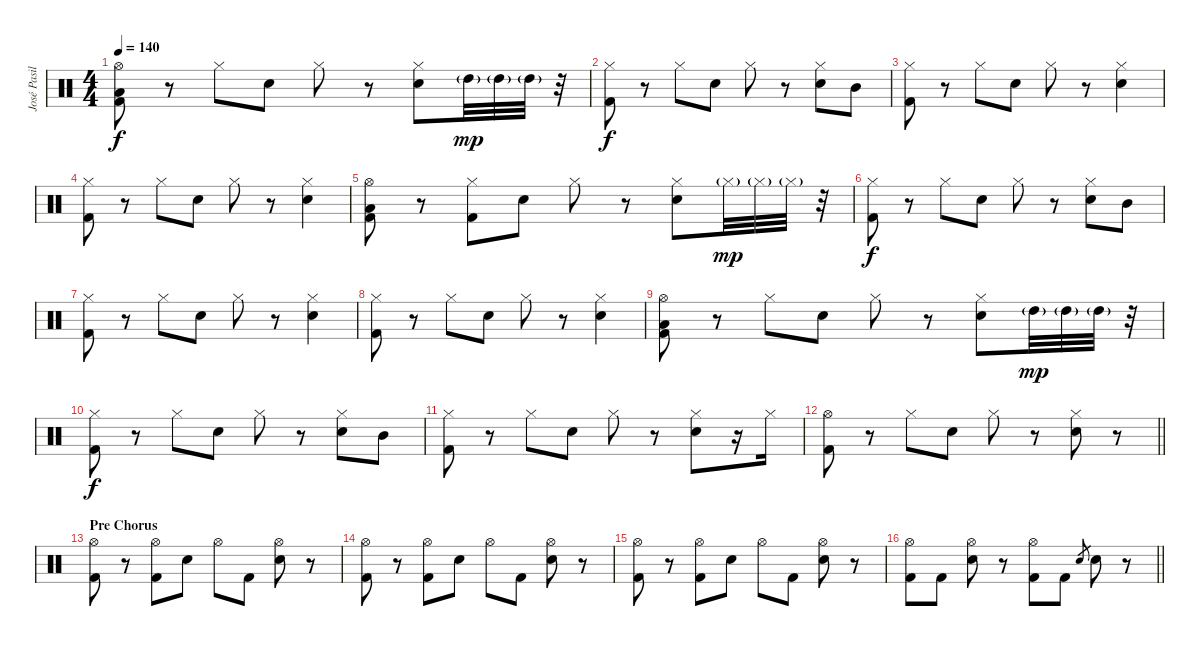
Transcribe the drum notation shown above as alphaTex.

\track ("José Pasillas [Drums]" "José Pasil") {instrument percussion}
\staff {score}
\articulation defaults
\ts (4 4)
\tempo 140
\clef neutral
\ks c
("Kick (hit) 2" "Low Tom (hit)" "Hi-Hat (open)").8{dy f} r.8 "Hi-Hat (closed)".8 "Electric Snare (hit)".8 "Hi-Hat (closed)".8 r.8 ("Electric Snare (hit)" "Hi-Hat (closed)").8 "High Tom (hit)"{g}.32{dy mp} "High Tom (hit)"{g}.32 "High Tom (hit)"{g}.32 r.32 |
("Kick (hit) 2" "Hi-Hat (closed)").8{dy f} r.8 "Hi-Hat (closed)".8 "Electric Snare (hit)".8 "Hi-Hat (closed)".8 r.8 ("Electric Snare (hit)" "Hi-Hat (closed)").8 "Mid Tom (hit)".8 |
("Kick (hit) 2" "Hi-Hat (closed)").8 r.8 "Hi-Hat (closed)".8 "Electric Snare (hit)".8 "Hi-Hat (closed)".8 r.8 ("Electric Snare (hit)" "Hi-Hat (closed)").4 |
("Kick (hit) 2" "Hi-Hat (closed)").8 r.8 "Hi-Hat (closed)".8 "Electric Snare (hit)".8 "Hi-Hat (closed)".8 r.8 ("Electric Snare (hit)" "Hi-Hat (closed)").4 |
("Kick (hit) 2" "Low Tom (hit)" "Hi-Hat (open)").8 r.8 ("Kick (hit) 2" "Hi-Hat (closed)").8 "Electric Snare (hit)".8 "Hi-Hat (closed)".8 r.8 ("Electric Snare (hit)" "Hi-Hat (closed)").8 "Hi-Hat (closed)"{g}.32{dy mp} "Hi-Hat (closed)"{g}.32 "Hi-Hat (closed)"{g}.32 r.32 |
("Kick (hit) 2" "Hi-Hat (closed)").8{dy f} r.8 "Hi-Hat (closed)".8 "Electric Snare (hit)".8 "Hi-Hat (closed)".8 r.8 ("Electric Snare (hit)" "Hi-Hat (closed)").8 "Mid Tom (hit)".8 |
("Kick (hit) 2" "Hi-Hat (closed)").8 r.8 "Hi-Hat (closed)".8 "Electric Snare (hit)".8 "Hi-Hat (closed)".8 r.8 ("Electric Snare (hit)" "Hi-Hat (closed)").4 |
("Kick (hit) 2" "Hi-Hat (closed)").8 r.8 "Hi-Hat (closed)".8 "Electric Snare (hit)".8 "Hi-Hat (closed)".8 r.8 ("Electric Snare (hit)" "Hi-Hat (closed)").4 |
("Kick (hit) 2" "Low Tom (hit)" "Hi-Hat (open)").8 r.8 "Hi-Hat (closed)".8 "Electric Snare (hit)".8 "Hi-Hat (closed)".8 r.8 ("Electric Snare (hit)" "Hi-Hat (closed)").8 "High Tom (hit)"{g}.32{dy mp} "High Tom (hit)"{g}.32 "High Tom (hit)"{g}.32 r.32 |
("Kick (hit) 2" "Hi-Hat (closed)").8{dy f} r.8 "Hi-Hat (closed)".8 "Electric Snare (hit)".8 "Hi-Hat (closed)".8 r.8 ("Electric Snare (hit)" "Hi-Hat (closed)").8 "Mid Tom (hit)".8 |
("Kick (hit) 2" "Hi-Hat (closed)").8 r.8 "Hi-Hat (closed)".8 "Electric Snare (hit)".8 "Hi-Hat (closed)".8 r.8 ("Electric Snare (hit)" "Hi-Hat (closed)").8 r.16 "Hi-Hat (closed)".16 |
\barLineRight lightlight
("Kick (hit) 2" "Hi-Hat (open)").8 r.8 "Hi-Hat (closed)".8 "Electric Snare (hit)".8 "Hi-Hat (closed)".8 r.8 ("Electric Snare (hit)" "Hi-Hat (closed)").8 r.8 |
\section ("" "Pre Chorus")
("Kick (hit) 2" "Hi-Hat (open)").8 r.8 ("Kick (hit) 2" "Hi-Hat (open)").8 "Electric Snare (hit)".8 "Hi-Hat (open)".8 "Kick (hit) 2".8 ("Electric Snare (hit)" "Hi-Hat (open)").8 r.8 |
("Kick (hit) 2" "Hi-Hat (open)").8 r.8 ("Kick (hit) 2" "Hi-Hat (open)").8 "Electric Snare (hit)".8 "Hi-Hat (open)".8 "Kick (hit) 2".8 ("Electric Snare (hit)" "Hi-Hat (open)").8 r.8 |
("Kick (hit) 2" "Hi-Hat (open)").8 r.8 ("Kick (hit) 2" "Hi-Hat (open)").8 "Electric Snare (hit)".8 "Hi-Hat (open)".8 "Kick (hit) 2".8 ("Electric Snare (hit)" "Hi-Hat (open)").8 r.8 |
\barLineRight lightlight
("Kick (hit) 2" "Hi-Hat (open)").8 "Kick (hit) 2".8 ("Electric Snare (hit)" "Hi-Hat (open)").8 r.8 ("Kick (hit) 2" "Hi-Hat (open)").8 "Kick (hit) 2".8 "Electric Snare (hit)".8{gr} "Electric Snare (hit)".8 r.8
